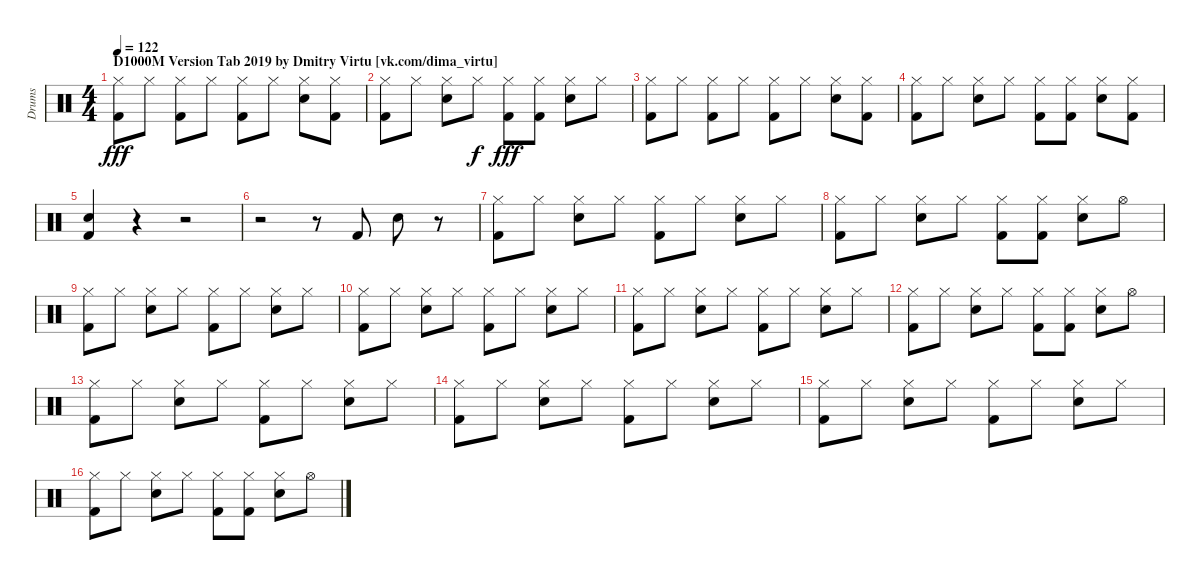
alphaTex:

\track ("Drums" "Drums") {instrument percussion}
\staff {score}
\articulation defaults
\ts (4 4)
\section ("" "D1000M Version Tab 2019 by Dmitry Virtu [vk.com/dima_virtu]")
\tempo 122
\clef neutral
\ks c
("Hi-Hat (closed)" "Kick (hit) 2").8{dy fff} "Hi-Hat (closed)".8 ("Hi-Hat (closed)" "Kick (hit) 2").8 "Hi-Hat (closed)".8 ("Hi-Hat (closed)" "Kick (hit) 2").8 "Hi-Hat (closed)".8 ("Hi-Hat (closed)" "Snare (hit) 2").8 ("Hi-Hat (closed)" "Kick (hit) 2").8 |
("Hi-Hat (closed)" "Kick (hit) 2").8 "Hi-Hat (closed)".8 ("Hi-Hat (closed)" "Snare (hit) 2").8 "Hi-Hat (closed)".8{dy f} ("Hi-Hat (closed)" "Kick (hit) 2").8{dy fff} ("Hi-Hat (closed)" "Kick (hit) 2").8 ("Hi-Hat (closed)" "Snare (hit) 2").8 "Hi-Hat (closed)".8 |
("Hi-Hat (closed)" "Kick (hit) 2").8 "Hi-Hat (closed)".8 ("Hi-Hat (closed)" "Kick (hit) 2").8 "Hi-Hat (closed)".8 ("Hi-Hat (closed)" "Kick (hit) 2").8 "Hi-Hat (closed)".8 ("Hi-Hat (closed)" "Snare (hit) 2").8 ("Hi-Hat (closed)" "Kick (hit) 2").8 |
("Hi-Hat (closed)" "Kick (hit) 2").8 "Hi-Hat (closed)".8 ("Hi-Hat (closed)" "Snare (hit) 2").8 "Hi-Hat (closed)".8 ("Hi-Hat (closed)" "Kick (hit) 2").8 ("Hi-Hat (closed)" "Kick (hit) 2").8 ("Hi-Hat (closed)" "Snare (hit) 2").8 ("Hi-Hat (closed)" "Kick (hit) 2").8 |
("Snare (hit) 2" "Kick (hit) 2").4 r.4 r.2 |
r.2 r.8 "Kick (hit) 2".8 "Snare (hit) 2".8 r.8 |
("Hi-Hat (closed)" "Kick (hit) 2").8 "Hi-Hat (closed)".8 ("Hi-Hat (closed)" "Snare (hit) 2").8 "Hi-Hat (closed)".8 ("Hi-Hat (closed)" "Kick (hit) 2").8 "Hi-Hat (closed)".8 ("Hi-Hat (closed)" "Snare (hit) 2").8 "Hi-Hat (closed)".8 |
("Hi-Hat (closed)" "Kick (hit) 2").8 "Hi-Hat (closed)".8 ("Hi-Hat (closed)" "Snare (hit) 2").8 "Hi-Hat (closed)".8 ("Hi-Hat (closed)" "Kick (hit) 2").8 ("Hi-Hat (closed)" "Kick (hit) 2").8 ("Hi-Hat (closed)" "Snare (hit) 2").8 "Hi-Hat (open)".8 |
("Hi-Hat (closed)" "Kick (hit) 2").8 "Hi-Hat (closed)".8 ("Hi-Hat (closed)" "Snare (hit) 2").8 "Hi-Hat (closed)".8 ("Hi-Hat (closed)" "Kick (hit) 2").8 "Hi-Hat (closed)".8 ("Hi-Hat (closed)" "Snare (hit) 2").8 "Hi-Hat (closed)".8 |
("Hi-Hat (closed)" "Kick (hit) 2").8 "Hi-Hat (closed)".8 ("Hi-Hat (closed)" "Snare (hit) 2").8 "Hi-Hat (closed)".8 ("Hi-Hat (closed)" "Kick (hit) 2").8 "Hi-Hat (closed)".8 ("Hi-Hat (closed)" "Snare (hit) 2").8 "Hi-Hat (closed)".8 |
("Hi-Hat (closed)" "Kick (hit) 2").8 "Hi-Hat (closed)".8 ("Hi-Hat (closed)" "Snare (hit) 2").8 "Hi-Hat (closed)".8 ("Hi-Hat (closed)" "Kick (hit) 2").8 "Hi-Hat (closed)".8 ("Hi-Hat (closed)" "Snare (hit) 2").8 "Hi-Hat (closed)".8 |
("Hi-Hat (closed)" "Kick (hit) 2").8 "Hi-Hat (closed)".8 ("Hi-Hat (closed)" "Snare (hit) 2").8 "Hi-Hat (closed)".8 ("Hi-Hat (closed)" "Kick (hit) 2").8 ("Hi-Hat (closed)" "Kick (hit) 2").8 ("Hi-Hat (closed)" "Snare (hit) 2").8 "Hi-Hat (open)".8 |
("Hi-Hat (closed)" "Kick (hit) 2").8 "Hi-Hat (closed)".8 ("Hi-Hat (closed)" "Snare (hit) 2").8 "Hi-Hat (closed)".8 ("Hi-Hat (closed)" "Kick (hit) 2").8 "Hi-Hat (closed)".8 ("Hi-Hat (closed)" "Snare (hit) 2").8 "Hi-Hat (closed)".8 |
("Hi-Hat (closed)" "Kick (hit) 2").8 "Hi-Hat (closed)".8 ("Hi-Hat (closed)" "Snare (hit) 2").8 "Hi-Hat (closed)".8 ("Hi-Hat (closed)" "Kick (hit) 2").8 "Hi-Hat (closed)".8 ("Hi-Hat (closed)" "Snare (hit) 2").8 "Hi-Hat (closed)".8 |
("Hi-Hat (closed)" "Kick (hit) 2").8 "Hi-Hat (closed)".8 ("Hi-Hat (closed)" "Snare (hit) 2").8 "Hi-Hat (closed)".8 ("Hi-Hat (closed)" "Kick (hit) 2").8 "Hi-Hat (closed)".8 ("Hi-Hat (closed)" "Snare (hit) 2").8 "Hi-Hat (closed)".8 |
("Hi-Hat (closed)" "Kick (hit) 2").8 "Hi-Hat (closed)".8 ("Hi-Hat (closed)" "Snare (hit) 2").8 "Hi-Hat (closed)".8 ("Hi-Hat (closed)" "Kick (hit) 2").8 ("Hi-Hat (closed)" "Kick (hit) 2").8 ("Hi-Hat (closed)" "Snare (hit) 2").8 "Hi-Hat (open)".8
